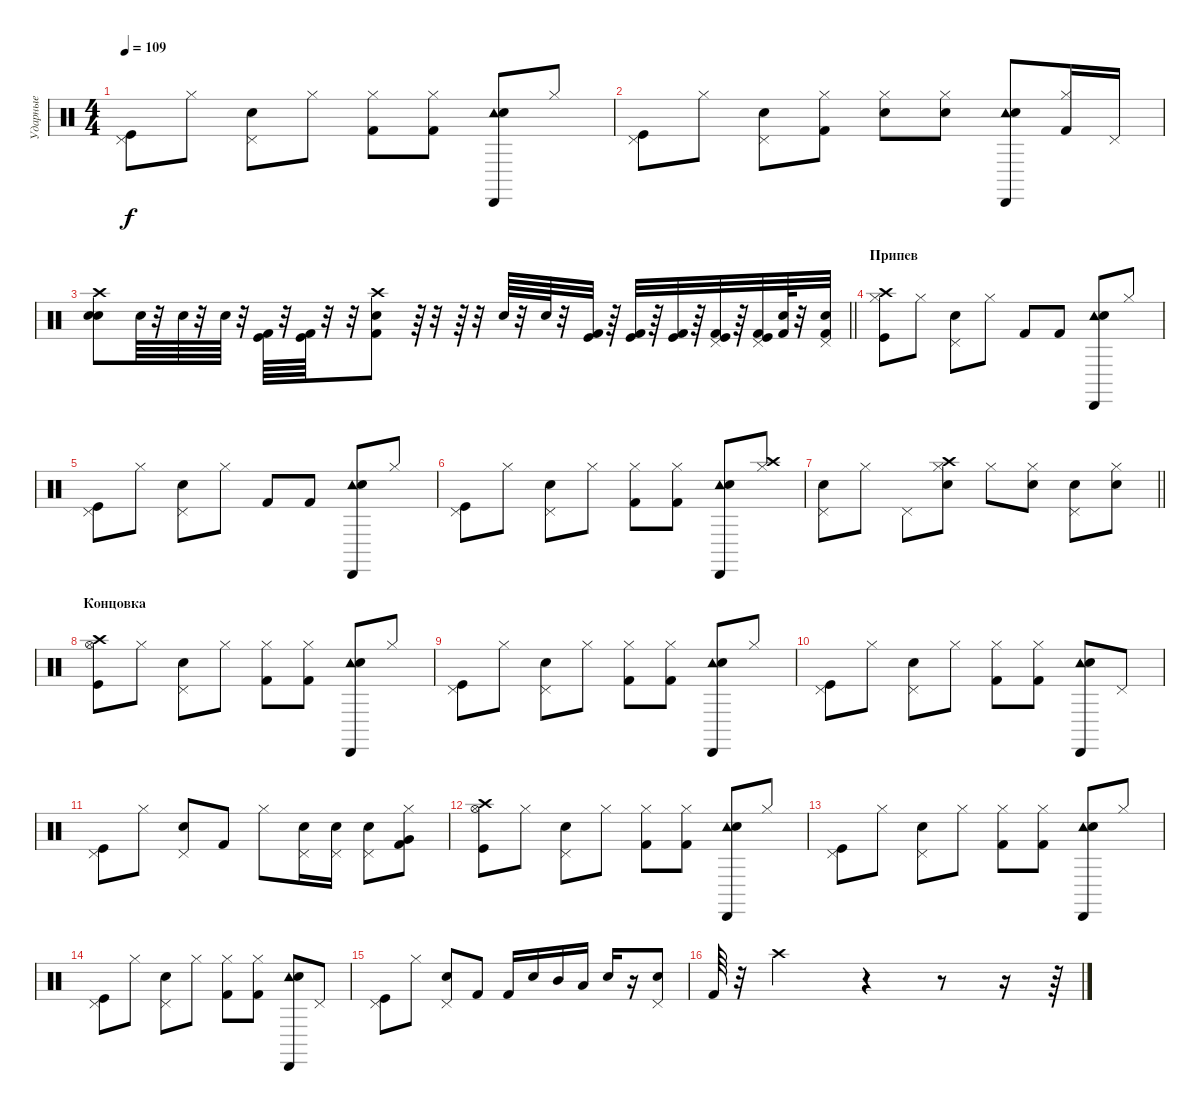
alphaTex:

\track ("Ударные" "Ударные") {instrument percussion}
\staff {score}
\articulation defaults
\ts (4 4)
\tempo 109
\clef neutral
\ks c
("Pedal Hi-Hat (hit)" "Kick (hit)").8{dy f} "Hi-Hat (closed)".8 ("Pedal Hi-Hat (hit)" "Snare (hit) 2").8 "Hi-Hat (closed)".8 ("Hi-Hat (closed)" "Kick (hit) 2").8 ("Hi-Hat (closed)" "Kick (hit) 2").8 ("Tambourine (hit)" "Cabasa (hit)" "Snare (hit) 2").8 "Hi-Hat (closed)".8 |
("Pedal Hi-Hat (hit)" "Kick (hit)").8 "Hi-Hat (closed)".8 ("Pedal Hi-Hat (hit)" "Snare (hit) 2").8 ("Hi-Hat (closed)" "Kick (hit) 2").8 ("Hi-Hat (closed)" "Snare (hit) 2").8 ("Hi-Hat (closed)" "Snare (hit) 2").8 ("Tambourine (hit)" "Cabasa (hit)" "Snare (hit) 2").8 ("Hi-Hat (closed)" "Kick (hit) 2").16 "Pedal Hi-Hat (hit)".16 |
\barLineRight lightlight
("Crash high (hit)" "Electric Snare (hit)" "Snare (hit) 2").8 "Electric Snare (hit)".64{volume 7} r.32 "Electric Snare (hit)".64 r.32 "Electric Snare (hit)".64 r.32 ("Kick (hit)" "Kick (hit) 2").64 r.32 ("Kick (hit)" "Kick (hit) 2").64 r.32 r.32 ("Crash high (hit)" "Kick (hit) 2" "Snare (hit) 2").8{volume 10} r.64{volume 7 balance 5} r.32 r.64 r.32 "Electric Snare (hit)".64 r.32 "Electric Snare (hit)".64 r.32 ("Kick (hit)" "Kick (hit) 2").32 r.64 ("Kick (hit)" "Kick (hit) 2").32 r.64 ("Kick (hit)" "Kick (hit) 2").32 r.64 ("Pedal Hi-Hat (hit)" "Kick (hit)" "Kick (hit) 2").32 r.64 ("Pedal Hi-Hat (hit)" "Kick (hit)" "Kick (hit) 2").32 ("Electric Snare (hit)" "Kick (hit) 2").64 r.32 ("Pedal Hi-Hat (hit)" "Electric Snare (hit)" "Kick (hit) 2").32 |
\section ("" "Припев")
("Hi-Hat (closed)" "Crash high (hit)" "Kick (hit)").8{volume 10} "Hi-Hat (closed)".8 ("Pedal Hi-Hat (hit)" "Snare (hit) 2").8 "Hi-Hat (closed)".8 "Kick (hit) 2".8 "Kick (hit) 2".8 ("Tambourine (hit)" "Cabasa (hit)" "Snare (hit) 2").8 "Hi-Hat (closed)".8 |
("Pedal Hi-Hat (hit)" "Kick (hit)").8 "Hi-Hat (closed)".8 ("Pedal Hi-Hat (hit)" "Snare (hit) 2").8 "Hi-Hat (closed)".8 "Kick (hit) 2".8 "Kick (hit) 2".8 ("Tambourine (hit)" "Cabasa (hit)" "Snare (hit) 2").8 "Hi-Hat (closed)".8 |
("Pedal Hi-Hat (hit)" "Kick (hit)").8 "Hi-Hat (closed)".8 ("Pedal Hi-Hat (hit)" "Snare (hit) 2").8 "Hi-Hat (closed)".8 ("Hi-Hat (closed)" "Kick (hit) 2").8 ("Hi-Hat (closed)" "Kick (hit) 2").8 ("Tambourine (hit)" "Cabasa (hit)" "Snare (hit) 2").8 ("Hi-Hat (closed)" "Crash high (hit)").8 |
\barLineRight lightlight
("Pedal Hi-Hat (hit)" "Snare (hit) 2").8 "Hi-Hat (closed)".8 "Pedal Hi-Hat (hit)".8 ("Hi-Hat (closed)" "Crash high (hit)" "Snare (hit) 2").8 "Hi-Hat (closed)".8 ("Hi-Hat (closed)" "Snare (hit) 2").8 ("Pedal Hi-Hat (hit)" "Snare (hit) 2").8 ("Hi-Hat (closed)" "Snare (hit) 2").8 |
\section ("" "Концовка")
("Hi-Hat (open)" "Crash high (hit)" "Kick (hit)").8 "Hi-Hat (closed)".8 ("Pedal Hi-Hat (hit)" "Snare (hit) 2").8 "Hi-Hat (closed)".8 ("Hi-Hat (closed)" "Kick (hit) 2").8 ("Hi-Hat (closed)" "Kick (hit) 2").8 ("Tambourine (hit)" "Cabasa (hit)" "Snare (hit) 2").8 "Hi-Hat (closed)".8 |
("Pedal Hi-Hat (hit)" "Kick (hit)").8 "Hi-Hat (closed)".8 ("Pedal Hi-Hat (hit)" "Snare (hit) 2").8 "Hi-Hat (closed)".8 ("Hi-Hat (closed)" "Kick (hit) 2").8 ("Hi-Hat (closed)" "Kick (hit) 2").8 ("Tambourine (hit)" "Cabasa (hit)" "Snare (hit) 2").8 "Hi-Hat (closed)".8 |
("Pedal Hi-Hat (hit)" "Kick (hit)").8 "Hi-Hat (closed)".8 ("Pedal Hi-Hat (hit)" "Snare (hit) 2").8 "Hi-Hat (closed)".8 ("Hi-Hat (closed)" "Kick (hit) 2").8 ("Hi-Hat (closed)" "Kick (hit) 2").8 ("Tambourine (hit)" "Cabasa (hit)" "Snare (hit) 2").8 "Pedal Hi-Hat (hit)".8 |
("Pedal Hi-Hat (hit)" "Kick (hit)").8 "Hi-Hat (closed)".8 ("Pedal Hi-Hat (hit)" "Snare (hit) 2").8 "Kick (hit) 2".8 "Hi-Hat (closed)".8 ("Pedal Hi-Hat (hit)" "Snare (hit) 2").16 ("Pedal Hi-Hat (hit)" "Snare (hit) 2").16 ("Pedal Hi-Hat (hit)" "Snare (hit) 2").8 ("Hi-Hat (closed)" "Very Low Tom (hit)" "Kick (hit) 2").8 |
("Hi-Hat (open)" "Crash high (hit)" "Kick (hit)").8 "Hi-Hat (closed)".8 ("Pedal Hi-Hat (hit)" "Snare (hit) 2").8 "Hi-Hat (closed)".8 ("Hi-Hat (closed)" "Kick (hit) 2").8 ("Hi-Hat (closed)" "Kick (hit) 2").8 ("Tambourine (hit)" "Cabasa (hit)" "Snare (hit) 2").8 "Hi-Hat (closed)".8 |
("Pedal Hi-Hat (hit)" "Kick (hit)").8 "Hi-Hat (closed)".8 ("Pedal Hi-Hat (hit)" "Snare (hit) 2").8 "Hi-Hat (closed)".8 ("Hi-Hat (closed)" "Kick (hit) 2").8 ("Hi-Hat (closed)" "Kick (hit) 2").8 ("Tambourine (hit)" "Cabasa (hit)" "Snare (hit) 2").8 "Hi-Hat (closed)".8 |
("Pedal Hi-Hat (hit)" "Kick (hit)").8 "Hi-Hat (closed)".8 ("Pedal Hi-Hat (hit)" "Snare (hit) 2").8 "Hi-Hat (closed)".8 ("Hi-Hat (closed)" "Kick (hit) 2").8 ("Hi-Hat (closed)" "Kick (hit) 2").8 ("Tambourine (hit)" "Cabasa (hit)" "Snare (hit) 2").8 "Pedal Hi-Hat (hit)".8 |
("Pedal Hi-Hat (hit)" "Kick (hit)").8 "Hi-Hat (closed)".8 ("Pedal Hi-Hat (hit)" "Snare (hit) 2").8 "Kick (hit) 2".8 "Kick (hit) 2".16 "Electric Snare (hit)".16 "Mid Tom (hit)".16 "Low Floor Tom (hit)".16 "Electric Snare (hit)".16 r.16 ("Pedal Hi-Hat (hit)" "Snare (hit) 2").8 |
"Kick (hit) 2".64 r.32 "Crash high (hit)".2 r.4 r.8 r.16 r.64
